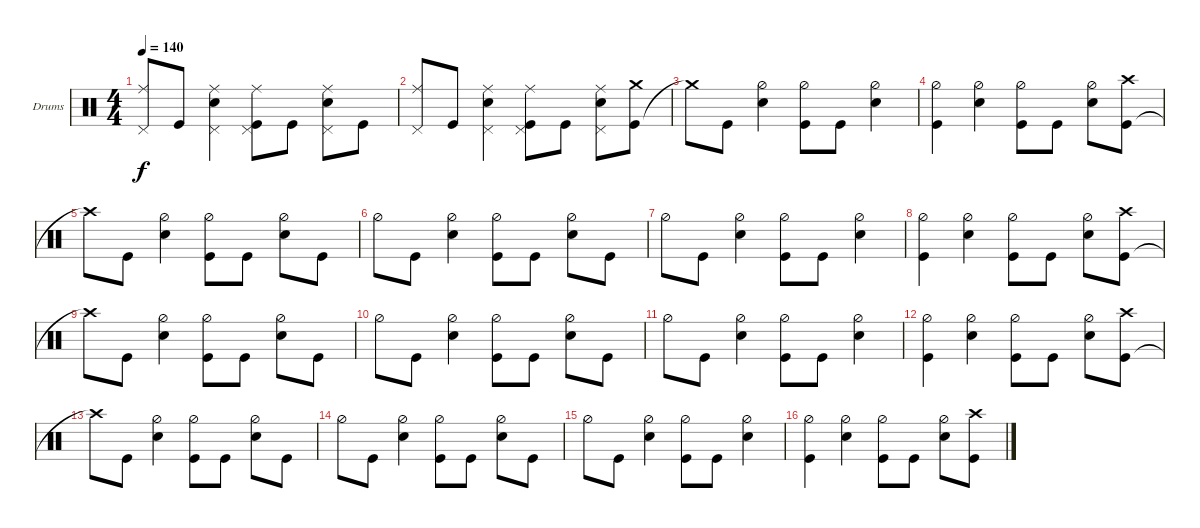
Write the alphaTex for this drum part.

\defaultSystemsLayout 4
\bracketExtendMode groupsimilarinstruments
\firstSystemTrackNameOrientation horizontal
\otherSystemsTrackNameOrientation horizontal
\track ("Steve" "Drums") {instrument percussion}
\staff {score}
\articulation defaults
\ts (4 4)
\tempo 140
\clef neutral
\ks c
("Ride (middle)" "Pedal Hi-Hat (hit)").8{dy f} "Kick (hit)".8 ("Snare (hit) 2" "Ride (middle)" "Pedal Hi-Hat (hit)").4 ("Kick (hit)" "Ride (middle)" "Pedal Hi-Hat (hit)").8 "Kick (hit)".8 ("Snare (hit) 2" "Ride (middle)" "Pedal Hi-Hat (hit)").8 "Kick (hit)".8 |
("Ride (middle)" "Pedal Hi-Hat (hit)").8 "Kick (hit)".8 ("Snare (hit) 2" "Ride (middle)" "Pedal Hi-Hat (hit)").4 ("Kick (hit)" "Ride (middle)" "Pedal Hi-Hat (hit)").8 "Kick (hit)".8 ("Snare (hit) 2" "Ride (middle)" "Pedal Hi-Hat (hit)").8 ("Kick (hit)" "Crash medium (hit)").8 |
"Crash medium (hit)"{t}.8 "Kick (hit)".8 ("Snare (hit) 2" "Hi-Hat (half)").4 ("Kick (hit)" "Hi-Hat (half)").8 "Kick (hit)".8 ("Snare (hit) 2" "Hi-Hat (half)").4 |
("Kick (hit)" "Hi-Hat (half)").4 ("Snare (hit) 2" "Hi-Hat (half)").4 ("Kick (hit)" "Hi-Hat (half)").8 "Kick (hit)".8 ("Snare (hit) 2" "Hi-Hat (half)").8 ("Kick (hit)" "Crash high (hit)").8 |
"Crash high (hit)"{t}.8 "Kick (hit)".8 ("Snare (hit) 2" "Hi-Hat (half)").4 ("Kick (hit)" "Hi-Hat (half)").8 "Kick (hit)".8 ("Snare (hit) 2" "Hi-Hat (half)").8 "Kick (hit)".8 |
"Hi-Hat (half)".8 "Kick (hit)".8 ("Snare (hit) 2" "Hi-Hat (half)").4 ("Kick (hit)" "Hi-Hat (half)").8 "Kick (hit)".8 ("Snare (hit) 2" "Hi-Hat (half)").8 "Kick (hit)".8 |
"Hi-Hat (half)".8 "Kick (hit)".8 ("Snare (hit) 2" "Hi-Hat (half)").4 ("Kick (hit)" "Hi-Hat (half)").8 "Kick (hit)".8 ("Snare (hit) 2" "Hi-Hat (half)").4 |
("Kick (hit)" "Hi-Hat (half)").4 ("Snare (hit) 2" "Hi-Hat (half)").4 ("Kick (hit)" "Hi-Hat (half)").8 "Kick (hit)".8 ("Snare (hit) 2" "Hi-Hat (half)").8 ("Kick (hit)" "Crash high (hit)").8 |
"Crash high (hit)"{t}.8 "Kick (hit)".8 ("Snare (hit) 2" "Hi-Hat (half)").4 ("Kick (hit)" "Hi-Hat (half)").8 "Kick (hit)".8 ("Snare (hit) 2" "Hi-Hat (half)").8 "Kick (hit)".8 |
"Hi-Hat (half)".8 "Kick (hit)".8 ("Snare (hit) 2" "Hi-Hat (half)").4 ("Kick (hit)" "Hi-Hat (half)").8 "Kick (hit)".8 ("Snare (hit) 2" "Hi-Hat (half)").8 "Kick (hit)".8 |
"Hi-Hat (half)".8 "Kick (hit)".8 ("Snare (hit) 2" "Hi-Hat (half)").4 ("Kick (hit)" "Hi-Hat (half)").8 "Kick (hit)".8 ("Snare (hit) 2" "Hi-Hat (half)").4 |
("Kick (hit)" "Hi-Hat (half)").4 ("Snare (hit) 2" "Hi-Hat (half)").4 ("Kick (hit)" "Hi-Hat (half)").8 "Kick (hit)".8 ("Snare (hit) 2" "Hi-Hat (half)").8 ("Kick (hit)" "Crash high (hit)").8 |
"Crash high (hit)"{t}.8 "Kick (hit)".8 ("Snare (hit) 2" "Hi-Hat (half)").4 ("Kick (hit)" "Hi-Hat (half)").8 "Kick (hit)".8 ("Snare (hit) 2" "Hi-Hat (half)").8 "Kick (hit)".8 |
"Hi-Hat (half)".8 "Kick (hit)".8 ("Snare (hit) 2" "Hi-Hat (half)").4 ("Kick (hit)" "Hi-Hat (half)").8 "Kick (hit)".8 ("Snare (hit) 2" "Hi-Hat (half)").8 "Kick (hit)".8 |
"Hi-Hat (half)".8 "Kick (hit)".8 ("Snare (hit) 2" "Hi-Hat (half)").4 ("Kick (hit)" "Hi-Hat (half)").8 "Kick (hit)".8 ("Snare (hit) 2" "Hi-Hat (half)").4 |
("Kick (hit)" "Hi-Hat (half)").4 ("Snare (hit) 2" "Hi-Hat (half)").4 ("Kick (hit)" "Hi-Hat (half)").8 "Kick (hit)".8 ("Snare (hit) 2" "Hi-Hat (half)").8 ("Kick (hit)" "Crash high (hit)").8
